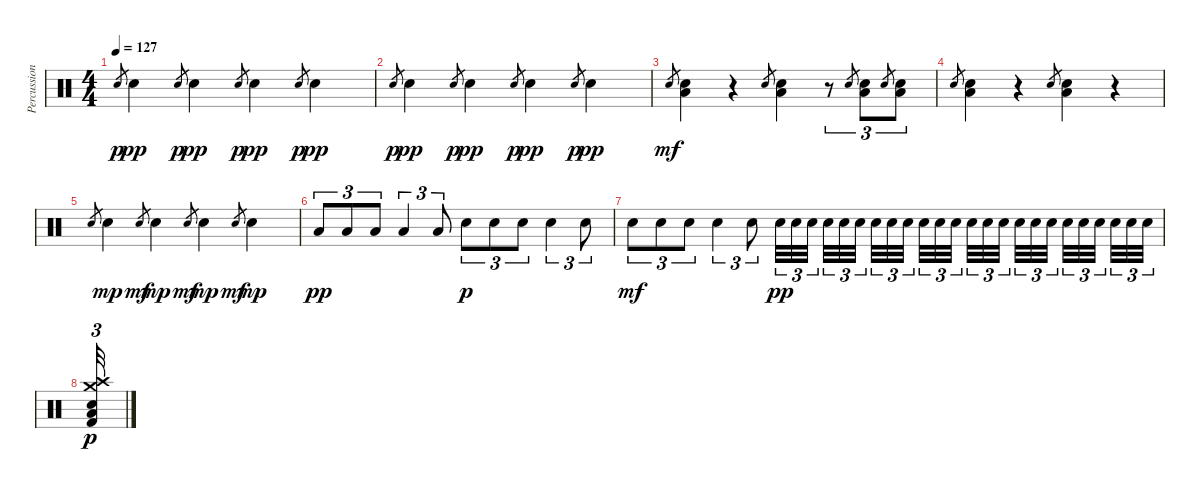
\track ("Percussion" "Percussion") {instrument percussion}
\staff {score}
\articulation defaults
\ts (4 4)
\tempo 127
\clef neutral
\ks c "Electric Snare (hit)".8{gr dy p} "Electric Snare (hit)".4{dy pp} "Electric Snare (hit)".8{gr dy p} "Electric Snare (hit)".4{dy pp} "Electric Snare (hit)".8{gr dy p} "Electric Snare (hit)".4{dy pp} "Electric Snare (hit)".8{gr dy p} "Electric Snare (hit)".4{dy pp}
|
"Electric Snare (hit)".8{gr dy p} "Electric Snare (hit)".4{dy pp} "Electric Snare (hit)".8{gr dy p} "Electric Snare (hit)".4{dy pp} "Electric Snare (hit)".8{gr dy p} "Electric Snare (hit)".4{dy pp} "Electric Snare (hit)".8{gr dy p} "Electric Snare (hit)".4{dy pp} |
"Electric Snare (hit)".8{gr dy mf} ("Electric Snare (hit)" "Low Floor Tom (hit)").4 r.4 "Electric Snare (hit)".8{gr} ("Electric Snare (hit)" "Low Floor Tom (hit)").4 r.8{tu (3 2)} "Electric Snare (hit)".8{gr} ("Electric Snare (hit)" "Low Floor Tom (hit)").8{tu (3 2)} "Electric Snare (hit)".8{gr} ("Electric Snare (hit)" "Low Floor Tom (hit)").8{tu (3 2)} |
"Electric Snare (hit)".8{gr} ("Electric Snare (hit)" "Low Floor Tom (hit)").4 r.4 "Electric Snare (hit)".8{gr} ("Electric Snare (hit)" "Low Floor Tom (hit)").4 r.4 |
"Electric Snare (hit)".8{gr} "Electric Snare (hit)".4{dy mp} "Electric Snare (hit)".8{gr dy mf} "Electric Snare (hit)".4{dy mp} "Electric Snare (hit)".8{gr dy mf} "Electric Snare (hit)".4{dy mp} "Electric Snare (hit)".8{gr dy mf} "Electric Snare (hit)".4{dy mp} |
"Low Floor Tom (hit)".8{tu (3 2) dy pp} "Low Floor Tom (hit)".8{tu (3 2)} "Low Floor Tom (hit)".8{tu (3 2)} "Low Floor Tom (hit)".4{tu (3 2)} "Low Floor Tom (hit)".8{tu (3 2)} "Electric Snare (hit)".8{tu (3 2) dy p} "Electric Snare (hit)".8{tu (3 2)} "Electric Snare (hit)".8{tu (3 2)} "Electric Snare (hit)".4{tu (3 2)} "Electric Snare (hit)".8{tu (3 2)} |
"Electric Snare (hit)".8{tu (3 2) dy mf} "Electric Snare (hit)".8{tu (3 2)} "Electric Snare (hit)".8{tu (3 2)} "Electric Snare (hit)".4{tu (3 2)} "Electric Snare (hit)".8{tu (3 2)} "Electric Snare (hit)".32{tu (3 2) dy pp} "Electric Snare (hit)".32{tu (3 2)} "Electric Snare (hit)".32{tu (3 2) beam splitsecondary} "Electric Snare (hit)".32{tu (3 2)} "Electric Snare (hit)".32{tu (3 2)} "Electric Snare (hit)".32{tu (3 2) beam splitsecondary} "Electric Snare (hit)".32{tu (3 2)} "Electric Snare (hit)".32{tu (3 2)} "Electric Snare (hit)".32{tu (3 2) beam splitsecondary} "Electric Snare (hit)".32{tu (3 2)} "Electric Snare (hit)".32{tu (3 2)} "Electric Snare (hit)".32{tu (3 2)} "Electric Snare (hit)".32{tu (3 2)} "Electric Snare (hit)".32{tu (3 2)} "Electric Snare (hit)".32{tu (3 2) beam splitsecondary} "Electric Snare (hit)".32{tu (3 2)} "Electric Snare (hit)".32{tu (3 2)} "Electric Snare (hit)".32{tu (3 2) beam splitsecondary} "Electric Snare (hit)".32{tu (3 2)} "Electric Snare (hit)".32{tu (3 2)} "Electric Snare (hit)".32{tu (3 2) beam splitsecondary} "Electric Snare (hit)".32{tu (3 2)} "Electric Snare (hit)".32{tu (3 2)} "Electric Snare (hit)".32{tu (3 2)} |
("Crash high (hit)" "Crash medium (hit)" "Electric Snare (hit)" "Low Floor Tom (hit)" "Kick (hit) 2").32{tu (3 2) dy p}
